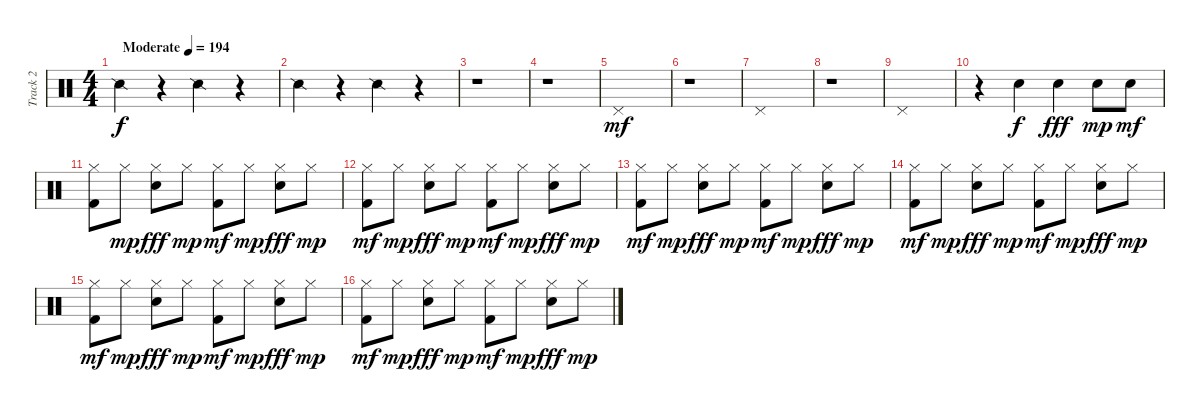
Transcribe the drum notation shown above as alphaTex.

\track ("Track 2" "Track 2") {instrument percussion}
\staff {score}
\articulation defaults
\ts (4 4)
\tempo (194 "Moderate")
\clef neutral
\ks c "Snare (side stick) 2".4{dy f}
r.4 "Snare (side stick) 2".4 r.4 |
"Snare (side stick) 2".4 r.4 "Snare (side stick) 2".4 r.4 |
r.1 |
r.1 |
"Pedal Hi-Hat (hit)".1{dy mf} |
r.1 |
"Pedal Hi-Hat (hit)".1 |
r.1 |
"Pedal Hi-Hat (hit)".1 |
r.4 "Snare (hit)".4{dy f} "Snare (hit)".4{dy fff} "Snare (hit)".8{dy mp} "Snare (hit)".8{dy mf} |
("Hi-Hat (closed)" "Kick (hit) 2").8 "Hi-Hat (closed)".8{dy mp} ("Hi-Hat (closed)" "Snare (hit)").8{dy fff} "Hi-Hat (closed)".8{dy mp} ("Hi-Hat (closed)" "Kick (hit) 2").8{dy mf} "Hi-Hat (closed)".8{dy mp} ("Hi-Hat (closed)" "Snare (hit)").8{dy fff} "Hi-Hat (closed)".8{dy mp} |
("Hi-Hat (closed)" "Kick (hit) 2").8{dy mf} "Hi-Hat (closed)".8{dy mp} ("Hi-Hat (closed)" "Snare (hit)").8{dy fff} "Hi-Hat (closed)".8{dy mp} ("Hi-Hat (closed)" "Kick (hit) 2").8{dy mf} "Hi-Hat (closed)".8{dy mp} ("Hi-Hat (closed)" "Snare (hit)").8{dy fff} "Hi-Hat (closed)".8{dy mp} |
("Hi-Hat (closed)" "Kick (hit) 2").8{dy mf} "Hi-Hat (closed)".8{dy mp} ("Hi-Hat (closed)" "Snare (hit)").8{dy fff} "Hi-Hat (closed)".8{dy mp} ("Hi-Hat (closed)" "Kick (hit) 2").8{dy mf} "Hi-Hat (closed)".8{dy mp} ("Hi-Hat (closed)" "Snare (hit)").8{dy fff} "Hi-Hat (closed)".8{dy mp} |
("Hi-Hat (closed)" "Kick (hit) 2").8{dy mf} "Hi-Hat (closed)".8{dy mp} ("Hi-Hat (closed)" "Snare (hit)").8{dy fff} "Hi-Hat (closed)".8{dy mp} ("Hi-Hat (closed)" "Kick (hit) 2").8{dy mf} "Hi-Hat (closed)".8{dy mp} ("Hi-Hat (closed)" "Snare (hit)").8{dy fff} "Hi-Hat (closed)".8{dy mp} |
("Hi-Hat (closed)" "Kick (hit) 2").8{dy mf} "Hi-Hat (closed)".8{dy mp} ("Hi-Hat (closed)" "Snare (hit)").8{dy fff} "Hi-Hat (closed)".8{dy mp} ("Hi-Hat (closed)" "Kick (hit) 2").8{dy mf} "Hi-Hat (closed)".8{dy mp} ("Hi-Hat (closed)" "Snare (hit)").8{dy fff} "Hi-Hat (closed)".8{dy mp} |
("Hi-Hat (closed)" "Kick (hit) 2").8{dy mf} "Hi-Hat (closed)".8{dy mp} ("Hi-Hat (closed)" "Snare (hit)").8{dy fff} "Hi-Hat (closed)".8{dy mp} ("Hi-Hat (closed)" "Kick (hit) 2").8{dy mf} "Hi-Hat (closed)".8{dy mp} ("Hi-Hat (closed)" "Snare (hit)").8{dy fff} "Hi-Hat (closed)".8{dy mp}
